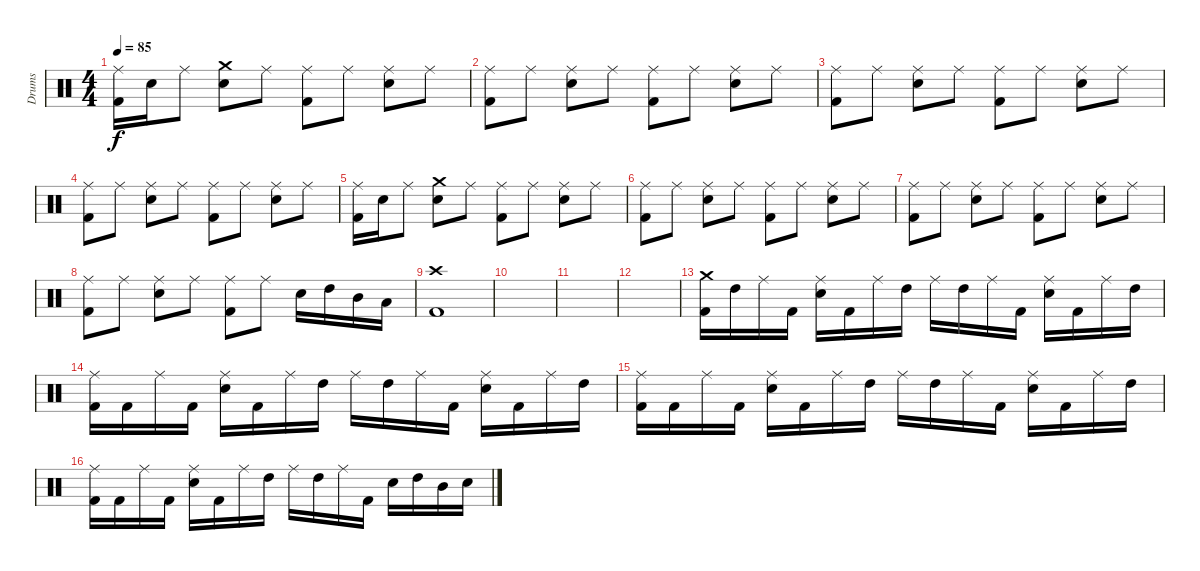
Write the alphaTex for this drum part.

\track ("Drums" "Drums") {instrument percussion}
\staff {score}
\articulation defaults
\ts (4 4)
\tempo 85
\clef neutral
\ks c
("Ride (middle)" "Kick (hit) 2").16{dy f} "Snare (hit) 2".16 "Ride (middle)".8 ("Crash medium (hit)" "Snare (hit) 2").8 "Ride (middle)".8 ("Ride (middle)" "Kick (hit) 2").8 "Ride (middle)".8 ("Ride (middle)" "Snare (hit) 2").8 "Ride (middle)".8 |
("Ride (middle)" "Kick (hit) 2").8 "Ride (middle)".8 ("Ride (middle)" "Snare (hit) 2").8 "Ride (middle)".8 ("Ride (middle)" "Kick (hit) 2").8 "Ride (middle)".8 ("Ride (middle)" "Snare (hit) 2").8 "Ride (middle)".8 |
("Ride (middle)" "Kick (hit) 2").8 "Ride (middle)".8 ("Ride (middle)" "Snare (hit) 2").8 "Ride (middle)".8 ("Ride (middle)" "Kick (hit) 2").8 "Ride (middle)".8 ("Ride (middle)" "Snare (hit) 2").8 "Ride (middle)".8 |
("Ride (middle)" "Kick (hit) 2").8 "Ride (middle)".8 ("Ride (middle)" "Snare (hit) 2").8 "Ride (middle)".8 ("Ride (middle)" "Kick (hit) 2").8 "Ride (middle)".8 ("Ride (middle)" "Snare (hit) 2").8 "Ride (middle)".8 |
("Ride (middle)" "Kick (hit) 2").16 "Snare (hit) 2".16 "Ride (middle)".8 ("Crash medium (hit)" "Snare (hit) 2").8 "Ride (middle)".8 ("Ride (middle)" "Kick (hit) 2").8 "Ride (middle)".8 ("Ride (middle)" "Snare (hit) 2").8 "Ride (middle)".8 |
("Ride (middle)" "Kick (hit) 2").8 "Ride (middle)".8 ("Ride (middle)" "Snare (hit) 2").8 "Ride (middle)".8 ("Ride (middle)" "Kick (hit) 2").8 "Ride (middle)".8 ("Ride (middle)" "Snare (hit) 2").8 "Ride (middle)".8 |
("Ride (middle)" "Kick (hit) 2").8 "Ride (middle)".8 ("Ride (middle)" "Snare (hit) 2").8 "Ride (middle)".8 ("Ride (middle)" "Kick (hit) 2").8 "Ride (middle)".8 ("Ride (middle)" "Snare (hit) 2").8 "Ride (middle)".8 |
("Ride (middle)" "Kick (hit) 2").8 "Ride (middle)".8 ("Ride (middle)" "Snare (hit) 2").8 "Ride (middle)".8 ("Ride (middle)" "Kick (hit) 2").8 "Ride (middle)".8 "Snare (hit) 2".16 "High Tom (hit)".16 "Mid Tom (hit)".16 "Low Tom (hit)".16 |
("Crash high (hit)" "Kick (hit) 2").1 |
|
|
|
("Crash medium (hit)" "Kick (hit) 2").16 "High Tom (hit)".16 "Ride (middle)".16 "Kick (hit) 2".16 ("Ride (middle)" "Snare (hit) 2").16 "Kick (hit) 2".16 "Ride (middle)".16 "High Tom (hit)".16 "Ride (middle)".16 "High Tom (hit)".16 "Ride (middle)".16 "Kick (hit) 2".16 ("Ride (middle)" "Snare (hit) 2").16 "Kick (hit) 2".16 "Ride (middle)".16 "High Tom (hit)".16 |
("Ride (middle)" "Kick (hit) 2").16 "Kick (hit) 2".16 "Ride (middle)".16 "Kick (hit) 2".16 ("Ride (middle)" "Snare (hit) 2").16 "Kick (hit) 2".16 "Ride (middle)".16 "High Tom (hit)".16 "Ride (middle)".16 "High Tom (hit)".16 "Ride (middle)".16 "Kick (hit) 2".16 ("Ride (middle)" "Snare (hit) 2").16 "Kick (hit) 2".16 "Ride (middle)".16 "High Tom (hit)".16 |
("Ride (middle)" "Kick (hit) 2").16 "Kick (hit) 2".16 "Ride (middle)".16 "Kick (hit) 2".16 ("Ride (middle)" "Snare (hit) 2").16 "Kick (hit) 2".16 "Ride (middle)".16 "High Tom (hit)".16 "Ride (middle)".16 "High Tom (hit)".16 "Ride (middle)".16 "Kick (hit) 2".16 ("Ride (middle)" "Snare (hit) 2").16 "Kick (hit) 2".16 "Ride (middle)".16 "High Tom (hit)".16 |
("Ride (middle)" "Kick (hit) 2").16 "Kick (hit) 2".16 "Ride (middle)".16 "Kick (hit) 2".16 ("Ride (middle)" "Snare (hit) 2").16 "Kick (hit) 2".16 "Ride (middle)".16 "High Tom (hit)".16 "Ride (middle)".16 "High Tom (hit)".16 "Ride (middle)".16 "Kick (hit) 2".16 "Snare (hit) 2".16 "High Tom (hit)".16 "Mid Tom (hit)".16 "Snare (hit) 2".16
